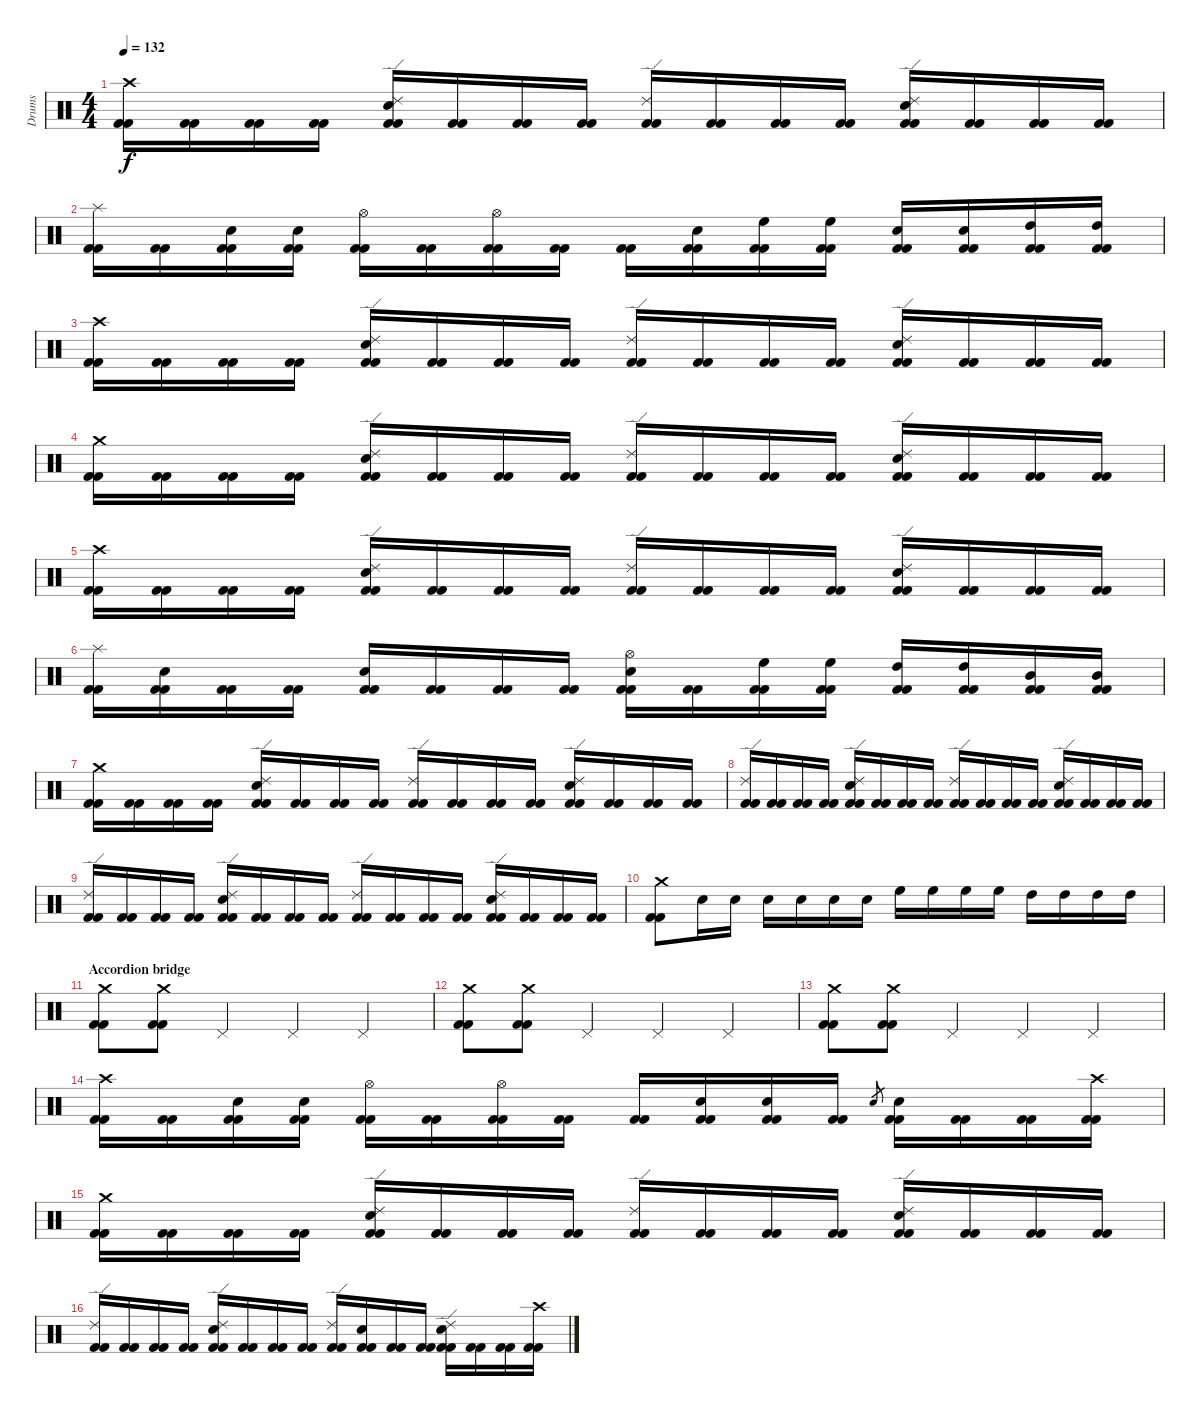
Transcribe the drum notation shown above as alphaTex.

\track ("Drums" "Drums") {instrument percussion}
\staff {score}
\articulation defaults
\ts (4 4)
\tempo 132
\clef neutral
\ks c
("Crash high (hit)" "Kick (hit) 2" "Kick (hit) 2").16{dy f} ("Kick (hit) 2" "Kick (hit) 2").16 ("Kick (hit) 2" "Kick (hit) 2").16 ("Kick (hit) 2" "Kick (hit) 2").16 ("Ride (edge) 2" "Electric Snare (hit)" "Kick (hit) 2" "Kick (hit) 2").16 ("Kick (hit) 2" "Kick (hit) 2").16 ("Kick (hit) 2" "Kick (hit) 2").16 ("Kick (hit) 2" "Kick (hit) 2").16 ("Ride (edge) 2" "Kick (hit) 2" "Kick (hit) 2").16 ("Kick (hit) 2" "Kick (hit) 2").16 ("Kick (hit) 2" "Kick (hit) 2").16 ("Kick (hit) 2" "Kick (hit) 2").16 ("Ride (edge) 2" "Electric Snare (hit)" "Kick (hit) 2" "Kick (hit) 2").16 ("Kick (hit) 2" "Kick (hit) 2").16 ("Kick (hit) 2" "Kick (hit) 2").16 ("Kick (hit) 2" "Kick (hit) 2").16 |
("Splash (hit)" "Kick (hit) 2" "Kick (hit) 2").16 ("Kick (hit) 2" "Kick (hit) 2").16 ("Electric Snare (hit)" "Kick (hit) 2" "Kick (hit) 2").16 ("Electric Snare (hit)" "Kick (hit) 2" "Kick (hit) 2").16 ("Hi-Hat (open)" "Kick (hit) 2" "Kick (hit) 2").16 ("Kick (hit) 2" "Kick (hit) 2").16 ("Hi-Hat (open)" "Kick (hit) 2" "Kick (hit) 2").16 ("Kick (hit) 2" "Kick (hit) 2").16 ("Kick (hit) 2" "Kick (hit) 2").16 ("Electric Snare (hit)" "Kick (hit) 2" "Kick (hit) 2").16 ("High Floor Tom (hit)" "Kick (hit) 2" "Kick (hit) 2").16 ("High Floor Tom (hit)" "Kick (hit) 2" "Kick (hit) 2").16 ("Electric Snare (hit)" "Kick (hit) 2" "Kick (hit) 2").16 ("Electric Snare (hit)" "Kick (hit) 2" "Kick (hit) 2").16 ("High Tom (hit)" "Kick (hit) 2" "Kick (hit) 2").16 ("High Tom (hit)" "Kick (hit) 2" "Kick (hit) 2").16 |
("Crash high (hit)" "Kick (hit) 2" "Kick (hit) 2").16 ("Kick (hit) 2" "Kick (hit) 2").16 ("Kick (hit) 2" "Kick (hit) 2").16 ("Kick (hit) 2" "Kick (hit) 2").16 ("Ride (edge) 2" "Electric Snare (hit)" "Kick (hit) 2" "Kick (hit) 2").16 ("Kick (hit) 2" "Kick (hit) 2").16 ("Kick (hit) 2" "Kick (hit) 2").16 ("Kick (hit) 2" "Kick (hit) 2").16 ("Ride (edge) 2" "Kick (hit) 2" "Kick (hit) 2").16 ("Kick (hit) 2" "Kick (hit) 2").16 ("Kick (hit) 2" "Kick (hit) 2").16 ("Kick (hit) 2" "Kick (hit) 2").16 ("Ride (edge) 2" "Electric Snare (hit)" "Kick (hit) 2" "Kick (hit) 2").16 ("Kick (hit) 2" "Kick (hit) 2").16 ("Kick (hit) 2" "Kick (hit) 2").16 ("Kick (hit) 2" "Kick (hit) 2").16 |
("Crash medium (hit)" "Kick (hit) 2" "Kick (hit) 2").16 ("Kick (hit) 2" "Kick (hit) 2").16 ("Kick (hit) 2" "Kick (hit) 2").16 ("Kick (hit) 2" "Kick (hit) 2").16 ("Ride (edge) 2" "Electric Snare (hit)" "Kick (hit) 2" "Kick (hit) 2").16 ("Kick (hit) 2" "Kick (hit) 2").16 ("Kick (hit) 2" "Kick (hit) 2").16 ("Kick (hit) 2" "Kick (hit) 2").16 ("Ride (edge) 2" "Kick (hit) 2" "Kick (hit) 2").16 ("Kick (hit) 2" "Kick (hit) 2").16 ("Kick (hit) 2" "Kick (hit) 2").16 ("Kick (hit) 2" "Kick (hit) 2").16 ("Ride (edge) 2" "Electric Snare (hit)" "Kick (hit) 2" "Kick (hit) 2").16 ("Kick (hit) 2" "Kick (hit) 2").16 ("Kick (hit) 2" "Kick (hit) 2").16 ("Kick (hit) 2" "Kick (hit) 2").16 |
("Crash high (hit)" "Kick (hit) 2" "Kick (hit) 2").16 ("Kick (hit) 2" "Kick (hit) 2").16 ("Kick (hit) 2" "Kick (hit) 2").16 ("Kick (hit) 2" "Kick (hit) 2").16 ("Ride (edge) 2" "Electric Snare (hit)" "Kick (hit) 2" "Kick (hit) 2").16 ("Kick (hit) 2" "Kick (hit) 2").16 ("Kick (hit) 2" "Kick (hit) 2").16 ("Kick (hit) 2" "Kick (hit) 2").16 ("Ride (edge) 2" "Kick (hit) 2" "Kick (hit) 2").16 ("Kick (hit) 2" "Kick (hit) 2").16 ("Kick (hit) 2" "Kick (hit) 2").16 ("Kick (hit) 2" "Kick (hit) 2").16 ("Ride (edge) 2" "Electric Snare (hit)" "Kick (hit) 2" "Kick (hit) 2").16 ("Kick (hit) 2" "Kick (hit) 2").16 ("Kick (hit) 2" "Kick (hit) 2").16 ("Kick (hit) 2" "Kick (hit) 2").16 |
("Splash (hit)" "Kick (hit) 2" "Kick (hit) 2").16 ("Electric Snare (hit)" "Kick (hit) 2" "Kick (hit) 2").16 ("Kick (hit) 2" "Kick (hit) 2").16 ("Kick (hit) 2" "Kick (hit) 2").16 ("Electric Snare (hit)" "Kick (hit) 2" "Kick (hit) 2").16 ("Kick (hit) 2" "Kick (hit) 2").16 ("Kick (hit) 2" "Kick (hit) 2").16 ("Kick (hit) 2" "Kick (hit) 2").16 ("Hi-Hat (open)" "Electric Snare (hit)" "Kick (hit) 2" "Kick (hit) 2").16 ("Kick (hit) 2" "Kick (hit) 2").16 ("High Floor Tom (hit)" "Kick (hit) 2" "Kick (hit) 2").16 ("High Floor Tom (hit)" "Kick (hit) 2" "Kick (hit) 2").16 ("High Tom (hit)" "Kick (hit) 2" "Kick (hit) 2").16 ("High Tom (hit)" "Kick (hit) 2" "Kick (hit) 2").16 ("Mid Tom (hit)" "Kick (hit) 2" "Kick (hit) 2").16 ("Mid Tom (hit)" "Kick (hit) 2" "Kick (hit) 2").16 |
("Crash medium (hit)" "Kick (hit) 2" "Kick (hit) 2").16 ("Kick (hit) 2" "Kick (hit) 2").16 ("Kick (hit) 2" "Kick (hit) 2").16 ("Kick (hit) 2" "Kick (hit) 2").16 ("Ride (edge) 2" "Electric Snare (hit)" "Kick (hit) 2" "Kick (hit) 2").16 ("Kick (hit) 2" "Kick (hit) 2").16 ("Kick (hit) 2" "Kick (hit) 2").16 ("Kick (hit) 2" "Kick (hit) 2").16 ("Ride (edge) 2" "Kick (hit) 2" "Kick (hit) 2").16 ("Kick (hit) 2" "Kick (hit) 2").16 ("Kick (hit) 2" "Kick (hit) 2").16 ("Kick (hit) 2" "Kick (hit) 2").16 ("Ride (edge) 2" "Electric Snare (hit)" "Kick (hit) 2" "Kick (hit) 2").16 ("Kick (hit) 2" "Kick (hit) 2").16 ("Kick (hit) 2" "Kick (hit) 2").16 ("Kick (hit) 2" "Kick (hit) 2").16 |
("Ride (edge) 2" "Kick (hit) 2" "Kick (hit) 2").16 ("Kick (hit) 2" "Kick (hit) 2").16 ("Kick (hit) 2" "Kick (hit) 2").16 ("Kick (hit) 2" "Kick (hit) 2").16 ("Ride (edge) 2" "Electric Snare (hit)" "Kick (hit) 2" "Kick (hit) 2").16 ("Kick (hit) 2" "Kick (hit) 2").16 ("Kick (hit) 2" "Kick (hit) 2").16 ("Kick (hit) 2" "Kick (hit) 2").16 ("Ride (edge) 2" "Kick (hit) 2" "Kick (hit) 2").16 ("Kick (hit) 2" "Kick (hit) 2").16 ("Kick (hit) 2" "Kick (hit) 2").16 ("Kick (hit) 2" "Kick (hit) 2").16 ("Ride (edge) 2" "Electric Snare (hit)" "Kick (hit) 2" "Kick (hit) 2").16 ("Kick (hit) 2" "Kick (hit) 2").16 ("Kick (hit) 2" "Kick (hit) 2").16 ("Kick (hit) 2" "Kick (hit) 2").16 |
("Ride (edge) 2" "Kick (hit) 2" "Kick (hit) 2").16 ("Kick (hit) 2" "Kick (hit) 2").16 ("Kick (hit) 2" "Kick (hit) 2").16 ("Kick (hit) 2" "Kick (hit) 2").16 ("Ride (edge) 2" "Electric Snare (hit)" "Kick (hit) 2" "Kick (hit) 2").16 ("Kick (hit) 2" "Kick (hit) 2").16 ("Kick (hit) 2" "Kick (hit) 2").16 ("Kick (hit) 2" "Kick (hit) 2").16 ("Ride (edge) 2" "Kick (hit) 2" "Kick (hit) 2").16 ("Kick (hit) 2" "Kick (hit) 2").16 ("Kick (hit) 2" "Kick (hit) 2").16 ("Kick (hit) 2" "Kick (hit) 2").16 ("Ride (edge) 2" "Electric Snare (hit)" "Kick (hit) 2" "Kick (hit) 2").16 ("Kick (hit) 2" "Kick (hit) 2").16 ("Kick (hit) 2" "Kick (hit) 2").16 ("Kick (hit) 2" "Kick (hit) 2").16 |
("Crash medium (hit)" "Kick (hit) 2" "Kick (hit) 2").8 "Electric Snare (hit)".16 "Electric Snare (hit)".16 "Electric Snare (hit)".16 "Electric Snare (hit)".16 "Electric Snare (hit)".16 "Electric Snare (hit)".16 "High Floor Tom (hit)".16 "High Floor Tom (hit)".16 "High Floor Tom (hit)".16 "High Floor Tom (hit)".16 "High Tom (hit)".16 "High Tom (hit)".16 "High Tom (hit)".16 "High Tom (hit)".16 |
\section ("" "Accordion bridge")
("Crash medium (hit)" "Kick (hit) 2" "Kick (hit) 2").8 ("Crash medium (hit)" "Kick (hit) 2" "Kick (hit) 2").8 "Pedal Hi-Hat (hit)".4 "Pedal Hi-Hat (hit)".4 "Pedal Hi-Hat (hit)".4 |
("Crash medium (hit)" "Kick (hit) 2" "Kick (hit) 2").8 ("Crash medium (hit)" "Kick (hit) 2" "Kick (hit) 2").8 "Pedal Hi-Hat (hit)".4 "Pedal Hi-Hat (hit)".4 "Pedal Hi-Hat (hit)".4 |
("Crash medium (hit)" "Kick (hit) 2" "Kick (hit) 2").8 ("Crash medium (hit)" "Kick (hit) 2" "Kick (hit) 2").8 "Pedal Hi-Hat (hit)".4 "Pedal Hi-Hat (hit)".4 "Pedal Hi-Hat (hit)".4 |
("Crash high (hit)" "Kick (hit) 2" "Kick (hit) 2").16 ("Kick (hit) 2" "Kick (hit) 2").16 ("Electric Snare (hit)" "Kick (hit) 2" "Kick (hit) 2").16 ("Electric Snare (hit)" "Kick (hit) 2" "Kick (hit) 2").16 ("Hi-Hat (open)" "Kick (hit) 2" "Kick (hit) 2").16 ("Kick (hit) 2" "Kick (hit) 2").16 ("Hi-Hat (open)" "Kick (hit) 2" "Kick (hit) 2").16 ("Kick (hit) 2" "Kick (hit) 2").16 ("Kick (hit) 2" "Kick (hit) 2").16 ("Electric Snare (hit)" "Kick (hit) 2" "Kick (hit) 2").16 ("Electric Snare (hit)" "Kick (hit) 2" "Kick (hit) 2").16 ("Kick (hit) 2" "Kick (hit) 2").16 "Electric Snare (hit)".8{gr} ("Electric Snare (hit)" "Kick (hit) 2" "Kick (hit) 2").16 ("Kick (hit) 2" "Kick (hit) 2").16 ("Kick (hit) 2" "Kick (hit) 2").16 ("Crash high (hit)" "Kick (hit) 2" "Kick (hit) 2").16 |
("Crash medium (hit)" "Kick (hit) 2" "Kick (hit) 2").16 ("Kick (hit) 2" "Kick (hit) 2").16 ("Kick (hit) 2" "Kick (hit) 2").16 ("Kick (hit) 2" "Kick (hit) 2").16 ("Ride (edge) 2" "Electric Snare (hit)" "Kick (hit) 2" "Kick (hit) 2").16 ("Kick (hit) 2" "Kick (hit) 2").16 ("Kick (hit) 2" "Kick (hit) 2").16 ("Kick (hit) 2" "Kick (hit) 2").16 ("Ride (edge) 2" "Kick (hit) 2" "Kick (hit) 2").16 ("Kick (hit) 2" "Kick (hit) 2").16 ("Kick (hit) 2" "Kick (hit) 2").16 ("Kick (hit) 2" "Kick (hit) 2").16 ("Ride (edge) 2" "Electric Snare (hit)" "Kick (hit) 2" "Kick (hit) 2").16 ("Kick (hit) 2" "Kick (hit) 2").16 ("Kick (hit) 2" "Kick (hit) 2").16 ("Kick (hit) 2" "Kick (hit) 2").16 |
("Ride (edge) 2" "Kick (hit) 2" "Kick (hit) 2").16 ("Kick (hit) 2" "Kick (hit) 2").16 ("Kick (hit) 2" "Kick (hit) 2").16 ("Kick (hit) 2" "Kick (hit) 2").16 ("Ride (edge) 2" "Electric Snare (hit)" "Kick (hit) 2" "Kick (hit) 2").16 ("Kick (hit) 2" "Kick (hit) 2").16 ("Kick (hit) 2" "Kick (hit) 2").16 ("Kick (hit) 2" "Kick (hit) 2").16 ("Ride (edge) 2" "Kick (hit) 2" "Kick (hit) 2").16 ("Electric Snare (hit)" "Kick (hit) 2" "Kick (hit) 2").16 ("Kick (hit) 2" "Kick (hit) 2").16 ("Kick (hit) 2" "Kick (hit) 2").16 ("Ride (edge) 2" "Electric Snare (hit)" "Kick (hit) 2" "Kick (hit) 2").16 ("Kick (hit) 2" "Kick (hit) 2").16 ("Kick (hit) 2" "Kick (hit) 2").16 ("Crash high (hit)" "Kick (hit) 2" "Kick (hit) 2").16
